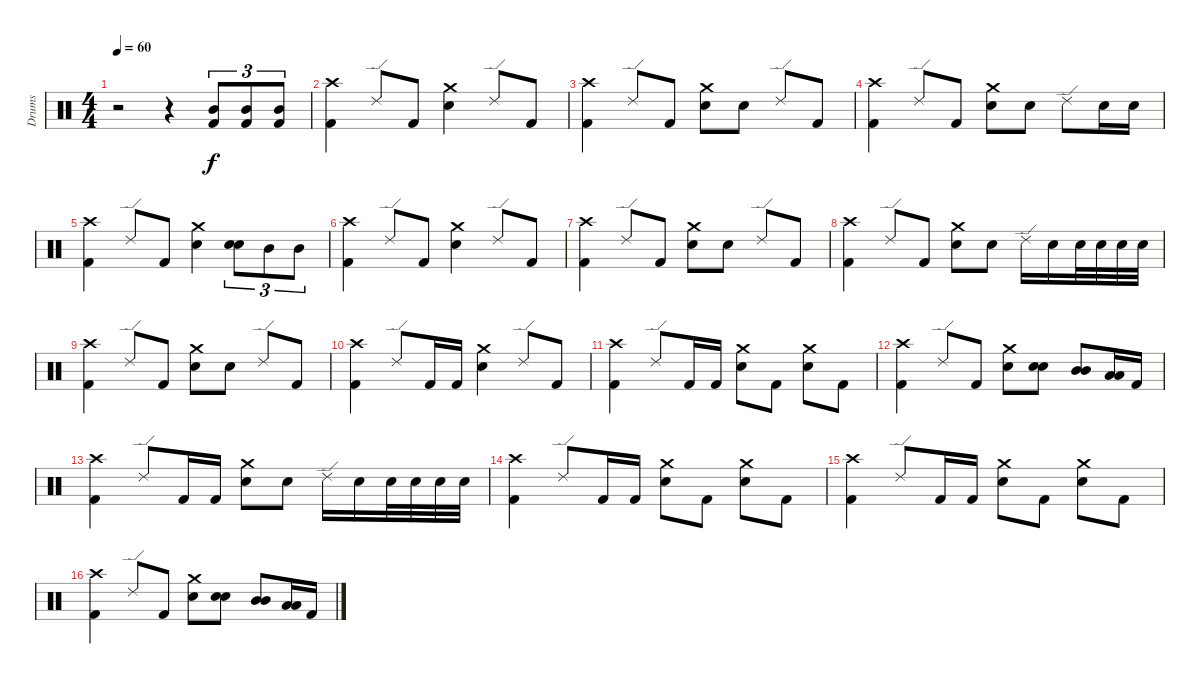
\track ("Drums" "Drums") {instrument percussion}
\staff {score}
\articulation defaults
\ts (4 4)
\tempo 60
\clef neutral
\ks c
r.2{dy f} r.4 ("Mid Tom (hit)" "Kick (hit) 2").8{tu (3 2)} ("Mid Tom (hit)" "Kick (hit) 2").8{tu (3 2)} ("Mid Tom (hit)" "Kick (hit) 2").8{tu (3 2)} |
("Crash high (hit)" "Kick (hit) 2").4 "Ride (edge) 2".8 "Kick (hit) 2".8 ("Crash medium (hit)" "Electric Snare (hit)").4 "Ride (edge) 2".8 "Kick (hit) 2".8 |
("Crash high (hit)" "Kick (hit) 2").4 "Ride (edge) 2".8 "Kick (hit) 2".8 ("Crash medium (hit)" "Electric Snare (hit)").8 "Electric Snare (hit)".8 "Ride (edge) 2".8 "Kick (hit) 2".8 |
("Crash high (hit)" "Kick (hit) 2").4 "Ride (edge) 2".8 "Kick (hit) 2".8 ("Crash medium (hit)" "Electric Snare (hit)").8 "Electric Snare (hit)".8 "Ride (edge) 2".8 "Electric Snare (hit)".16 "Electric Snare (hit)".16 |
("Crash high (hit)" "Kick (hit) 2").4 "Ride (edge) 2".8 "Kick (hit) 2".8 ("Crash medium (hit)" "Electric Snare (hit)").4 ("Electric Snare (hit)" "Electric Snare (hit)").8{tu (3 2) bu 60} "Mid Tom (hit)".8{tu (3 2)} "Mid Tom (hit)".8{tu (3 2)} |
("Crash high (hit)" "Kick (hit) 2").4 "Ride (edge) 2".8 "Kick (hit) 2".8 ("Crash medium (hit)" "Electric Snare (hit)").4 "Ride (edge) 2".8 "Kick (hit) 2".8 |
("Crash high (hit)" "Kick (hit) 2").4 "Ride (edge) 2".8 "Kick (hit) 2".8 ("Crash medium (hit)" "Electric Snare (hit)").8 "Electric Snare (hit)".8 "Ride (edge) 2".8 "Kick (hit) 2".8 |
("Crash high (hit)" "Kick (hit) 2").4 "Ride (edge) 2".8 "Kick (hit) 2".8 ("Crash medium (hit)" "Electric Snare (hit)").8 "Electric Snare (hit)".8 "Ride (edge) 2".16 "Electric Snare (hit)".16 "Electric Snare (hit)".32 "Electric Snare (hit)".32 "Electric Snare (hit)".32 "Electric Snare (hit)".32 |
("Crash high (hit)" "Kick (hit) 2").4 "Ride (edge) 2".8 "Kick (hit) 2".8 ("Crash medium (hit)" "Electric Snare (hit)").8 "Electric Snare (hit)".8 "Ride (edge) 2".8 "Kick (hit) 2".8 |
("Crash high (hit)" "Kick (hit) 2").4 "Ride (edge) 2".8 "Kick (hit) 2".16 "Kick (hit) 2".16 ("Crash medium (hit)" "Electric Snare (hit)").4 "Ride (edge) 2".8 "Kick (hit) 2".8 |
("Crash high (hit)" "Kick (hit) 2").4 "Ride (edge) 2".8 "Kick (hit) 2".16 "Kick (hit) 2".16 ("Crash medium (hit)" "Electric Snare (hit)").8 "Kick (hit) 2".8 ("Crash medium (hit)" "Electric Snare (hit)").8 "Kick (hit) 2".8 |
("Crash high (hit)" "Kick (hit) 2").4 "Ride (edge) 2".8 "Kick (hit) 2".8 ("Crash medium (hit)" "Electric Snare (hit)").8 ("Electric Snare (hit)" "Electric Snare (hit)").8{bu 60} ("Mid Tom (hit)" "Mid Tom (hit)").8{bu 60} ("Low Tom (hit)" "Low Tom (hit)").16{bu 60} "Kick (hit) 2".16 |
("Crash high (hit)" "Kick (hit) 2").4 "Ride (edge) 2".8 "Kick (hit) 2".16 "Kick (hit) 2".16 ("Crash medium (hit)" "Electric Snare (hit)").8 "Electric Snare (hit)".8 "Ride (edge) 2".16 "Electric Snare (hit)".16 "Electric Snare (hit)".32 "Electric Snare (hit)".32 "Electric Snare (hit)".32 "Electric Snare (hit)".32 |
("Crash high (hit)" "Kick (hit) 2").4 "Ride (edge) 2".8 "Kick (hit) 2".16 "Kick (hit) 2".16 ("Crash medium (hit)" "Electric Snare (hit)").8 "Kick (hit) 2".8 ("Crash medium (hit)" "Electric Snare (hit)").8 "Kick (hit) 2".8 |
("Crash high (hit)" "Kick (hit) 2").4 "Ride (edge) 2".8 "Kick (hit) 2".16 "Kick (hit) 2".16 ("Crash medium (hit)" "Electric Snare (hit)").8 "Kick (hit) 2".8 ("Crash medium (hit)" "Electric Snare (hit)").8 "Kick (hit) 2".8 |
("Crash high (hit)" "Kick (hit) 2").4 "Ride (edge) 2".8 "Kick (hit) 2".8 ("Crash medium (hit)" "Electric Snare (hit)").8 ("Electric Snare (hit)" "Electric Snare (hit)").8{bu 60} ("Mid Tom (hit)" "Mid Tom (hit)").8{bu 60} ("Low Tom (hit)" "Low Tom (hit)").16{bu 60} "Kick (hit) 2".16
